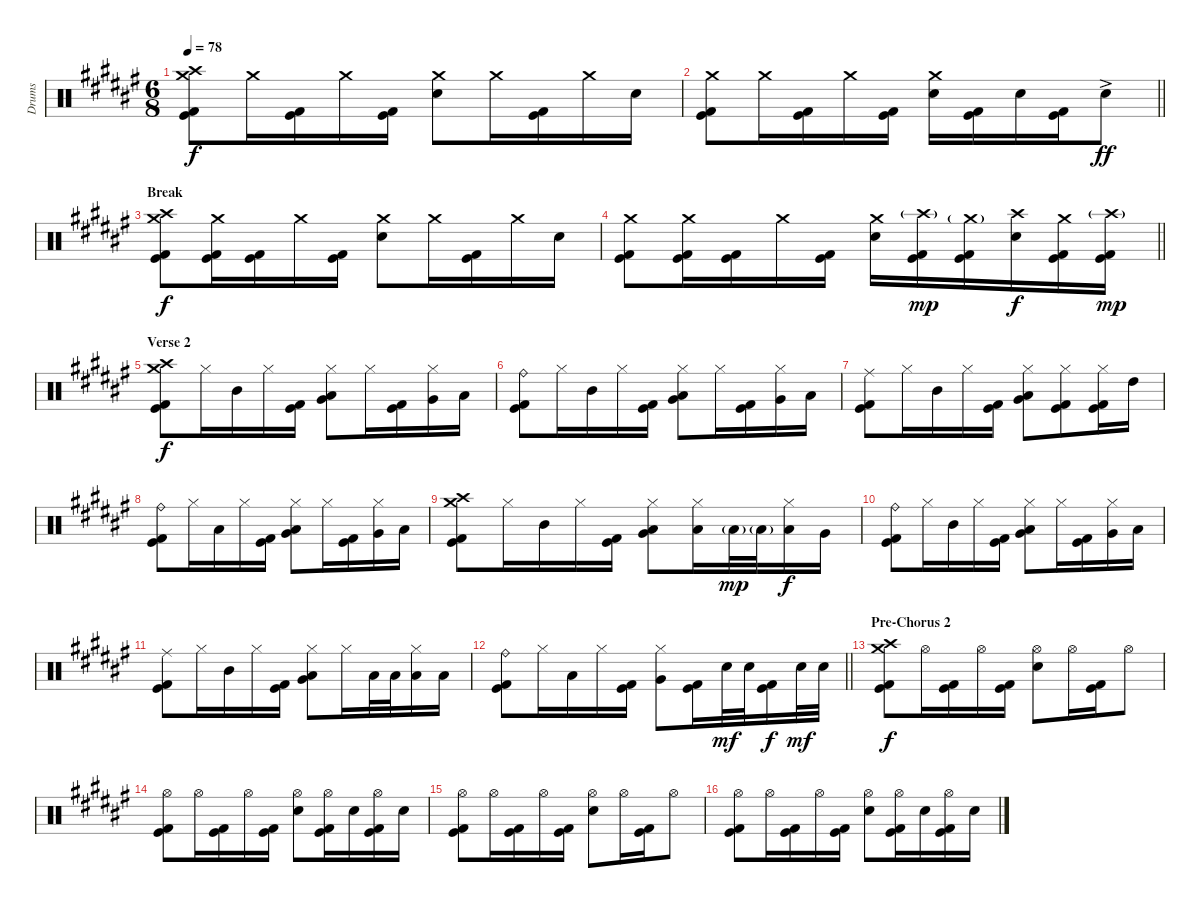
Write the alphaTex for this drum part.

\track ("Drums" "Drums") {instrument percussion}
\staff {score}
\articulation defaults
\ts (6 8)
\tempo 78
\clef neutral
\ks d#minor
("Crash medium (hit)" "Crash high (hit)" "Kick (hit)" "Kick (hit) 2").8{dy f} "Crash medium (hit)".16 ("Kick (hit)" "Kick (hit) 2").16 "Crash medium (hit)".16 ("Kick (hit)" "Kick (hit) 2").16 ("Crash medium (hit)" "Snare (hit) 2").8 "Crash medium (hit)".16 ("Kick (hit)" "Kick (hit) 2").16 "Crash medium (hit)".16 "Snare (hit) 2".16 |
\barLineRight lightlight
("Crash medium (hit)" "Kick (hit)" "Kick (hit) 2").8 "Crash medium (hit)".16 ("Kick (hit)" "Kick (hit) 2").16 "Crash medium (hit)".16 ("Kick (hit)" "Kick (hit) 2").16 ("Crash medium (hit)" "Snare (hit) 2").16 ("Kick (hit)" "Kick (hit) 2").16 "Snare (hit) 2".16 ("Kick (hit)" "Kick (hit) 2").16 "Snare (hit) 2"{ac}.8{dy ff} |
\section ("" "Break")
("Crash medium (hit)" "Crash high (hit)" "Kick (hit)" "Kick (hit) 2").8{dy f} ("Crash medium (hit)" "Kick (hit)" "Kick (hit) 2").16 ("Kick (hit)" "Kick (hit) 2").16 "Crash medium (hit)".16 ("Kick (hit)" "Kick (hit) 2").16 ("Crash medium (hit)" "Snare (hit) 2").8 "Crash medium (hit)".16 ("Kick (hit)" "Kick (hit) 2").16 "Crash medium (hit)".16 "Snare (hit) 2".16 |
\barLineRight lightlight
("Crash medium (hit)" "Kick (hit)" "Kick (hit) 2").8 ("Crash medium (hit)" "Kick (hit)" "Kick (hit) 2").16 ("Kick (hit)" "Kick (hit) 2").16 "Crash medium (hit)".16 ("Kick (hit)" "Kick (hit) 2").16 ("Crash medium (hit)" "Snare (hit) 2").16 ("Crash high (hit)"{g} "Kick (hit)" "Kick (hit) 2").16{dy mp} ("Crash medium (hit)"{g} "Kick (hit)" "Kick (hit) 2").16 ("Crash high (hit)" "Snare (hit) 2").16{dy f} ("Crash medium (hit)" "Kick (hit)" "Kick (hit) 2").16 ("Crash high (hit)"{g} "Kick (hit)" "Kick (hit) 2").16{dy mp} |
\section ("" "Verse 2")
("Crash medium (hit)" "Crash high (hit)" "Kick (hit)" "Kick (hit) 2").8{dy f} "Hi-Hat (closed)".16 "Mid Tom (hit)".16 "Hi-Hat (closed)".16 ("Kick (hit)" "Kick (hit) 2").16 ("Hi-Hat (closed)" "Low Tom (hit)" "Very Low Tom (hit)").8 "Hi-Hat (closed)".16 ("Kick (hit)" "Kick (hit) 2").16 ("Hi-Hat (closed)" "Very Low Tom (hit)").16 "Low Floor Tom (hit)".16 |
("Ride (bell)" "Kick (hit)" "Kick (hit) 2").8 "Hi-Hat (closed)".16 "Mid Tom (hit)".16 "Hi-Hat (closed)".16 ("Kick (hit)" "Kick (hit) 2").16 ("Hi-Hat (closed)" "Low Tom (hit)" "Very Low Tom (hit)").8 "Hi-Hat (closed)".16 ("Kick (hit)" "Kick (hit) 2").16 ("Hi-Hat (closed)" "Very Low Tom (hit)").16 "Low Floor Tom (hit)".16 |
("Ride (middle)" "Kick (hit)" "Kick (hit) 2").8 "Hi-Hat (closed)".16 "Mid Tom (hit)".16 "Hi-Hat (closed)".16 ("Kick (hit)" "Kick (hit) 2").16 ("Hi-Hat (closed)" "Low Tom (hit)" "Very Low Tom (hit)").8 ("Hi-Hat (closed)" "Kick (hit)" "Kick (hit) 2").8 ("Hi-Hat (closed)" "Kick (hit)" "Kick (hit) 2").16 "High Tom (hit)".16 |
("Ride (bell)" "Kick (hit)" "Kick (hit) 2").8 "Hi-Hat (closed)".16 "Low Tom (hit)".16 "Hi-Hat (closed)".16 ("Kick (hit)" "Kick (hit) 2").16 ("Hi-Hat (closed)" "Low Tom (hit)" "Very Low Tom (hit)").8 "Hi-Hat (closed)".16 ("Kick (hit)" "Kick (hit) 2").16 ("Hi-Hat (closed)" "Very Low Tom (hit)").16 "Low Floor Tom (hit)".16 |
("Crash medium (hit)" "Crash high (hit)" "Kick (hit)" "Kick (hit) 2").8 "Hi-Hat (closed)".16 "Mid Tom (hit)".16 "Hi-Hat (closed)".16 ("Kick (hit)" "Kick (hit) 2").16 ("Hi-Hat (closed)" "Low Tom (hit)" "Very Low Tom (hit)").8 ("Hi-Hat (closed)" "Low Floor Tom (hit)").16 "Low Floor Tom (hit)"{g}.32{dy mp} "Low Floor Tom (hit)"{g}.32 ("Hi-Hat (closed)" "Low Floor Tom (hit)").16{dy f} "Very Low Tom (hit)".16 |
("Ride (bell)" "Kick (hit)" "Kick (hit) 2").8 "Hi-Hat (closed)".16 "Mid Tom (hit)".16 "Hi-Hat (closed)".16 ("Kick (hit)" "Kick (hit) 2").16 ("Hi-Hat (closed)" "Low Tom (hit)" "Very Low Tom (hit)").8 "Hi-Hat (closed)".16 ("Kick (hit)" "Kick (hit) 2").16 ("Hi-Hat (closed)" "Very Low Tom (hit)").16 "Low Floor Tom (hit)".16 |
("Ride (middle)" "Kick (hit)" "Kick (hit) 2").8 "Hi-Hat (closed)".16 "Mid Tom (hit)".16 "Hi-Hat (closed)".16 ("Kick (hit)" "Kick (hit) 2").16 ("Hi-Hat (closed)" "Low Tom (hit)" "Very Low Tom (hit)").8 "Hi-Hat (closed)".16 "Low Floor Tom (hit)".32 "Low Floor Tom (hit)".32 ("Hi-Hat (closed)" "Low Floor Tom (hit)").16 "Low Tom (hit)".16 |
\barLineRight lightlight
("Ride (bell)" "Kick (hit)" "Kick (hit) 2").8 "Hi-Hat (closed)".16 "Low Tom (hit)".16 "Hi-Hat (closed)".16 ("Kick (hit)" "Kick (hit) 2").16 ("Hi-Hat (closed)" "Very Low Tom (hit)").8 ("Kick (hit)" "Kick (hit) 2").16 "Snare (hit) 2".32{dy mf} "Snare (hit) 2".32 ("Kick (hit)" "Kick (hit) 2").16{dy f} "Snare (hit) 2".32{dy mf} "Snare (hit) 2".32 |
\section ("" "Pre-Chorus 2")
("Crash medium (hit)" "Crash high (hit)" "Kick (hit)" "Kick (hit) 2").8{dy f} "Hi-Hat (open)".16 ("Kick (hit)" "Kick (hit) 2").16 "Hi-Hat (open)".16 ("Kick (hit)" "Kick (hit) 2").16 ("Hi-Hat (open)" "Snare (hit) 2").8 "Hi-Hat (open)".16 ("Kick (hit)" "Kick (hit) 2").16 "Hi-Hat (open)".8 |
("Hi-Hat (open)" "Kick (hit)" "Kick (hit) 2").8 "Hi-Hat (open)".16 ("Kick (hit)" "Kick (hit) 2").16 "Hi-Hat (open)".16 ("Kick (hit)" "Kick (hit) 2").16 ("Hi-Hat (open)" "Snare (hit) 2").8 ("Hi-Hat (open)" "Kick (hit)" "Kick (hit) 2").16 "Snare (hit) 2".16 ("Hi-Hat (open)" "Kick (hit)" "Kick (hit) 2").16 "Snare (hit) 2".16 |
("Hi-Hat (open)" "Kick (hit)" "Kick (hit) 2").8 "Hi-Hat (open)".16 ("Kick (hit)" "Kick (hit) 2").16 "Hi-Hat (open)".16 ("Kick (hit)" "Kick (hit) 2").16 ("Hi-Hat (open)" "Snare (hit) 2").8 "Hi-Hat (open)".16 ("Kick (hit)" "Kick (hit) 2").16 "Hi-Hat (open)".8 |
("Hi-Hat (open)" "Kick (hit)" "Kick (hit) 2").8 "Hi-Hat (open)".16 ("Kick (hit)" "Kick (hit) 2").16 "Hi-Hat (open)".16 ("Kick (hit)" "Kick (hit) 2").16 ("Hi-Hat (open)" "Snare (hit) 2").8 ("Hi-Hat (open)" "Kick (hit)" "Kick (hit) 2").16 "Snare (hit) 2".16 ("Hi-Hat (open)" "Kick (hit)" "Kick (hit) 2").16 "Snare (hit) 2".16
